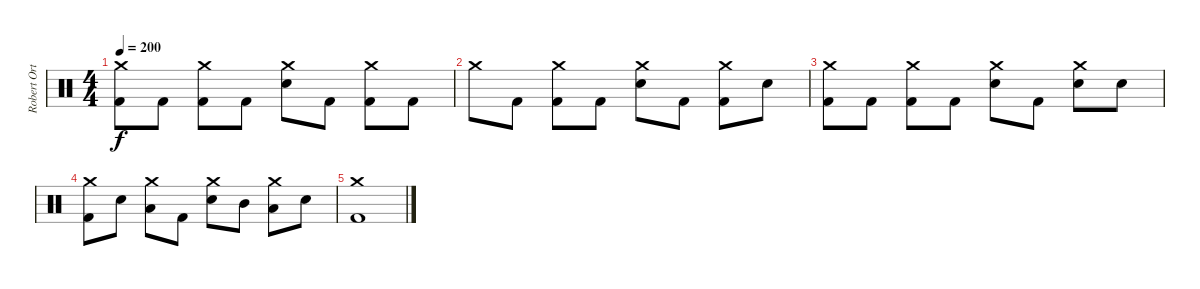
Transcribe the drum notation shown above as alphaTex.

\track ("Robert Ortiz - Drums" "Robert Ort") {instrument percussion}
\staff {score}
\articulation defaults
\ts (4 4)
\tempo 200
\clef neutral
\ks c
("Crash medium (hit)" "Kick (hit) 2").8{dy f} "Kick (hit) 2".8 ("Crash medium (hit)" "Kick (hit) 2").8 "Kick (hit) 2".8 ("Crash medium (hit)" "Electric Snare (hit)").8 "Kick (hit) 2".8 ("Crash medium (hit)" "Kick (hit) 2").8 "Kick (hit) 2".8 |
"Crash medium (hit)".8 "Kick (hit) 2".8 ("Crash medium (hit)" "Kick (hit) 2").8 "Kick (hit) 2".8 ("Crash medium (hit)" "Electric Snare (hit)").8 "Kick (hit) 2".8 ("Crash medium (hit)" "Kick (hit) 2").8 "Electric Snare (hit)".8 |
("Crash medium (hit)" "Kick (hit) 2").8 "Kick (hit) 2".8 ("Crash medium (hit)" "Kick (hit) 2").8 "Kick (hit) 2".8 ("Crash medium (hit)" "Electric Snare (hit)").8 "Kick (hit) 2".8 ("Crash medium (hit)" "Electric Snare (hit)").8 "Electric Snare (hit)".8 |
("Crash medium (hit)" "Kick (hit) 2").8 "Electric Snare (hit)".8 ("Crash medium (hit)" "Low Tom (hit)").8 "Kick (hit) 2".8 ("Crash medium (hit)" "Electric Snare (hit)").8 "Mid Tom (hit)".8 ("Crash medium (hit)" "Low Tom (hit)").8 "Electric Snare (hit)".8 |
("Crash medium (hit)" "Kick (hit) 2").1
